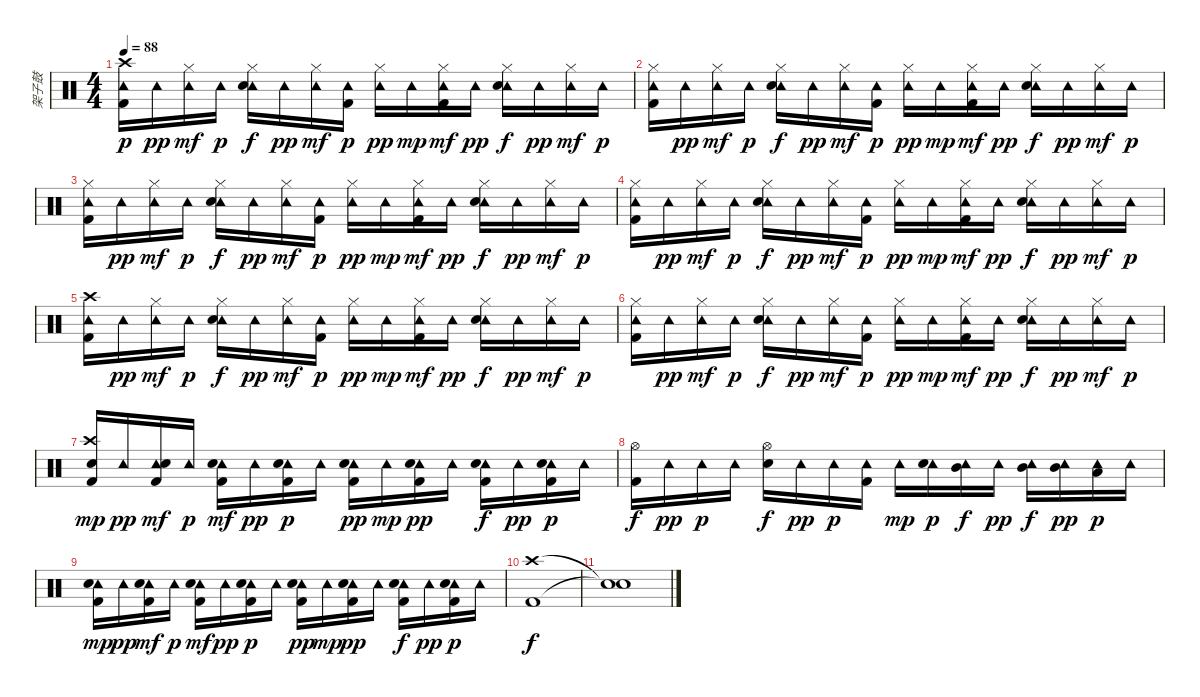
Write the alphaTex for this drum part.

\track ("架子鼓" "架子鼓") {instrument percussion}
\staff {score}
\articulation defaults
\ts (4 4)
\tempo 88
\clef neutral
\ks c
("Tambourine (hit)" "Kick (hit) 2" "Crash high (hit)").16{dy p} "Tambourine (hit)".16{dy pp} ("Tambourine (hit)" "Hi-Hat (closed)").16{dy mf} "Tambourine (hit)".16{dy p} ("Tambourine (hit)" "Electric Snare (hit)" "Hi-Hat (closed)").16{dy f} "Tambourine (hit)".16{dy pp} ("Tambourine (hit)" "Hi-Hat (closed)").16{dy mf} ("Tambourine (hit)" "Kick (hit) 2").16{dy p} ("Tambourine (hit)" "Hi-Hat (closed)").16{dy pp} "Tambourine (hit)".16{dy mp} ("Tambourine (hit)" "Kick (hit) 2" "Hi-Hat (closed)").16{dy mf} "Tambourine (hit)".16{dy pp} ("Tambourine (hit)" "Electric Snare (hit)" "Hi-Hat (closed)").16{dy f} "Tambourine (hit)".16{dy pp} ("Tambourine (hit)" "Hi-Hat (closed)").16{dy mf} "Tambourine (hit)".16{dy p} |
("Tambourine (hit)" "Kick (hit) 2" "Hi-Hat (closed)").16 "Tambourine (hit)".16{dy pp} ("Tambourine (hit)" "Hi-Hat (closed)").16{dy mf} "Tambourine (hit)".16{dy p} ("Tambourine (hit)" "Electric Snare (hit)" "Hi-Hat (closed)").16{dy f} "Tambourine (hit)".16{dy pp} ("Tambourine (hit)" "Hi-Hat (closed)").16{dy mf} ("Tambourine (hit)" "Kick (hit) 2").16{dy p} ("Tambourine (hit)" "Hi-Hat (closed)").16{dy pp} "Tambourine (hit)".16{dy mp} ("Tambourine (hit)" "Kick (hit) 2" "Hi-Hat (closed)").16{dy mf} "Tambourine (hit)".16{dy pp} ("Tambourine (hit)" "Electric Snare (hit)" "Hi-Hat (closed)").16{dy f} "Tambourine (hit)".16{dy pp} ("Tambourine (hit)" "Hi-Hat (closed)").16{dy mf} "Tambourine (hit)".16{dy p} |
("Tambourine (hit)" "Kick (hit) 2" "Hi-Hat (closed)").16 "Tambourine (hit)".16{dy pp} ("Tambourine (hit)" "Hi-Hat (closed)").16{dy mf} "Tambourine (hit)".16{dy p} ("Tambourine (hit)" "Electric Snare (hit)" "Hi-Hat (closed)").16{dy f} "Tambourine (hit)".16{dy pp} ("Tambourine (hit)" "Hi-Hat (closed)").16{dy mf} ("Tambourine (hit)" "Kick (hit) 2").16{dy p} ("Tambourine (hit)" "Hi-Hat (closed)").16{dy pp} "Tambourine (hit)".16{dy mp} ("Tambourine (hit)" "Kick (hit) 2" "Hi-Hat (closed)").16{dy mf} "Tambourine (hit)".16{dy pp} ("Tambourine (hit)" "Electric Snare (hit)" "Hi-Hat (closed)").16{dy f} "Tambourine (hit)".16{dy pp} ("Tambourine (hit)" "Hi-Hat (closed)").16{dy mf} "Tambourine (hit)".16{dy p} |
("Tambourine (hit)" "Kick (hit) 2" "Hi-Hat (closed)").16 "Tambourine (hit)".16{dy pp} ("Tambourine (hit)" "Hi-Hat (closed)").16{dy mf} "Tambourine (hit)".16{dy p} ("Tambourine (hit)" "Electric Snare (hit)" "Hi-Hat (closed)").16{dy f} "Tambourine (hit)".16{dy pp} ("Tambourine (hit)" "Hi-Hat (closed)").16{dy mf} ("Tambourine (hit)" "Kick (hit) 2").16{dy p} ("Tambourine (hit)" "Hi-Hat (closed)").16{dy pp} "Tambourine (hit)".16{dy mp} ("Tambourine (hit)" "Kick (hit) 2" "Hi-Hat (closed)").16{dy mf} "Tambourine (hit)".16{dy pp} ("Tambourine (hit)" "Electric Snare (hit)" "Hi-Hat (closed)").16{dy f} "Tambourine (hit)".16{dy pp} ("Tambourine (hit)" "Hi-Hat (closed)").16{dy mf} "Tambourine (hit)".16{dy p} |
("Tambourine (hit)" "Kick (hit) 2" "Crash high (hit)").16 "Tambourine (hit)".16{dy pp} ("Tambourine (hit)" "Hi-Hat (closed)").16{dy mf} "Tambourine (hit)".16{dy p} ("Tambourine (hit)" "Electric Snare (hit)" "Hi-Hat (closed)").16{dy f} "Tambourine (hit)".16{dy pp} ("Tambourine (hit)" "Hi-Hat (closed)").16{dy mf} ("Tambourine (hit)" "Kick (hit) 2").16{dy p} ("Tambourine (hit)" "Hi-Hat (closed)").16{dy pp} "Tambourine (hit)".16{dy mp} ("Tambourine (hit)" "Kick (hit) 2" "Hi-Hat (closed)").16{dy mf} "Tambourine (hit)".16{dy pp} ("Tambourine (hit)" "Electric Snare (hit)" "Hi-Hat (closed)").16{dy f} "Tambourine (hit)".16{dy pp} ("Tambourine (hit)" "Hi-Hat (closed)").16{dy mf} "Tambourine (hit)".16{dy p} |
("Tambourine (hit)" "Kick (hit) 2" "Hi-Hat (closed)").16 "Tambourine (hit)".16{dy pp} ("Tambourine (hit)" "Hi-Hat (closed)").16{dy mf} "Tambourine (hit)".16{dy p} ("Tambourine (hit)" "Electric Snare (hit)" "Hi-Hat (closed)").16{dy f} "Tambourine (hit)".16{dy pp} ("Tambourine (hit)" "Hi-Hat (closed)").16{dy mf} ("Tambourine (hit)" "Kick (hit) 2").16{dy p} ("Tambourine (hit)" "Hi-Hat (closed)").16{dy pp} "Tambourine (hit)".16{dy mp} ("Tambourine (hit)" "Kick (hit) 2" "Hi-Hat (closed)").16{dy mf} "Tambourine (hit)".16{dy pp} ("Tambourine (hit)" "Electric Snare (hit)" "Hi-Hat (closed)").16{dy f} "Tambourine (hit)".16{dy pp} ("Tambourine (hit)" "Hi-Hat (closed)").16{dy mf} "Tambourine (hit)".16{dy p} |
("Crash high (hit)" "Kick (hit) 2" "Electric Snare (hit)").16{dy mp} "Tambourine (hit)".16{dy pp} ("Tambourine (hit)" "Kick (hit) 2" "Electric Snare (hit)").16{dy mf} "Tambourine (hit)".16{dy p} ("Tambourine (hit)" "Kick (hit) 2" "Electric Snare (hit)").16{dy mf} "Tambourine (hit)".16{dy pp} ("Tambourine (hit)" "Kick (hit) 2" "Electric Snare (hit)").16{dy p} "Tambourine (hit)".16 ("Tambourine (hit)" "Kick (hit) 2" "Electric Snare (hit)").16{dy pp} "Tambourine (hit)".16{dy mp} ("Tambourine (hit)" "Kick (hit) 2" "Electric Snare (hit)").16{dy pp} "Tambourine (hit)".16 ("Tambourine (hit)" "Kick (hit) 2" "Electric Snare (hit)").16{dy f} "Tambourine (hit)".16{dy pp} ("Tambourine (hit)" "Kick (hit) 2" "Electric Snare (hit)").16{dy p} "Tambourine (hit)".16 |
("Hi-Hat (open)" "Kick (hit) 2").16{dy f} "Tambourine (hit)".16{dy pp} "Tambourine (hit)".16{dy p} "Tambourine (hit)".16 ("Hi-Hat (open)" "Electric Snare (hit)").16{dy f} "Tambourine (hit)".16{dy pp} "Tambourine (hit)".16{dy p} ("Tambourine (hit)" "Kick (hit) 2").16 "Tambourine (hit)".16{dy mp} ("Tambourine (hit)" "Electric Snare (hit)").16{dy p} ("Tambourine (hit)" "Mid Tom (hit)").16{dy f} "Tambourine (hit)".16{dy pp} ("Tambourine (hit)" "Mid Tom (hit)").16{dy f} ("Tambourine (hit)" "Mid Tom (hit)").16{dy pp} ("Tambourine (hit)" "Low Tom (hit)").16{dy p} "Tambourine (hit)".16 |
("Tambourine (hit)" "Kick (hit) 2" "Electric Snare (hit)").16{dy mp} "Tambourine (hit)".16{dy pp} ("Tambourine (hit)" "Kick (hit) 2" "Electric Snare (hit)").16{dy mf} "Tambourine (hit)".16{dy p} ("Tambourine (hit)" "Kick (hit) 2" "Electric Snare (hit)").16{dy mf} "Tambourine (hit)".16{dy pp} ("Tambourine (hit)" "Kick (hit) 2" "Electric Snare (hit)").16{dy p} "Tambourine (hit)".16 ("Tambourine (hit)" "Kick (hit) 2" "Electric Snare (hit)").16{dy pp} "Tambourine (hit)".16{dy mp} ("Tambourine (hit)" "Kick (hit) 2" "Electric Snare (hit)").16{dy pp} "Tambourine (hit)".16 ("Tambourine (hit)" "Kick (hit) 2" "Electric Snare (hit)").16{dy f} "Tambourine (hit)".16{dy pp} ("Tambourine (hit)" "Kick (hit) 2" "Electric Snare (hit)").16{dy p} "Tambourine (hit)".16 |
("Crash high (hit)" "Kick (hit) 2").1{dy f} |
("Snare (hit)"{t} "Snare (hit)"{t}).1
